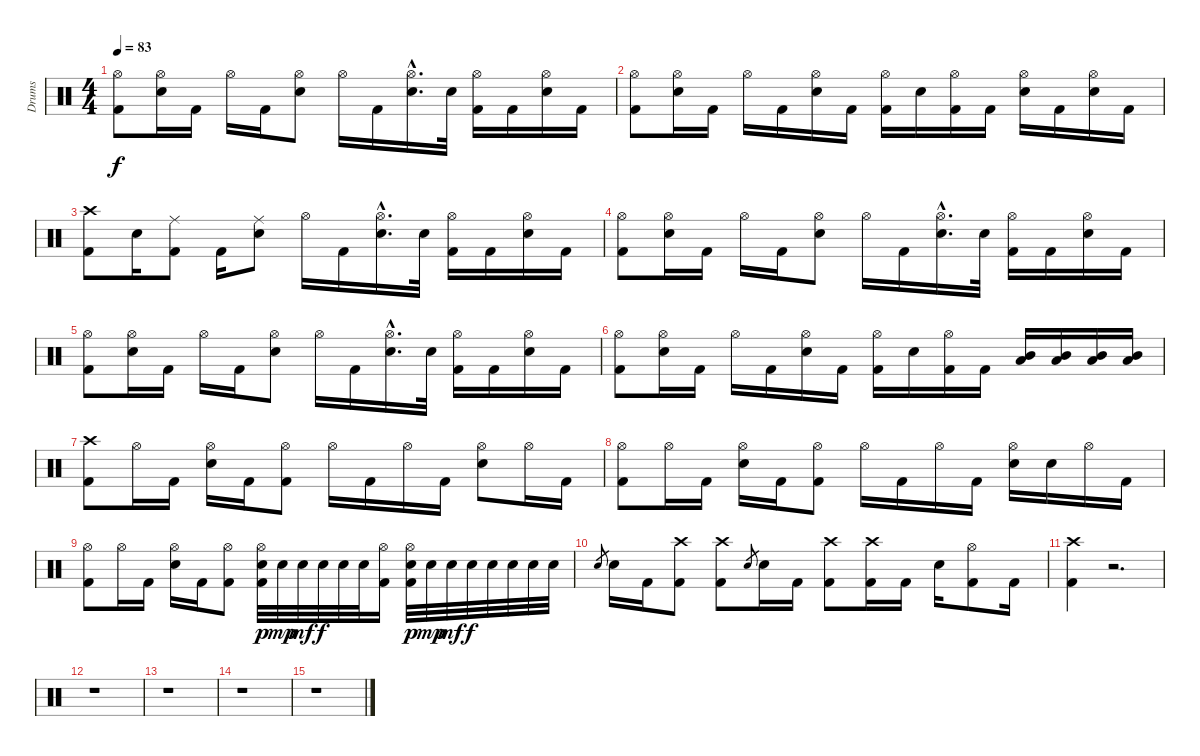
\track ("Drums" "Drums") {instrument percussion}
\staff {score}
\articulation defaults
\ts (4 4)
\tempo 83
\clef neutral
\ks c
("Hi-Hat (open)" "Kick (hit) 2").8{dy f} ("Hi-Hat (open)" "Electric Snare (hit)").16 "Kick (hit) 2".16 "Hi-Hat (open)".16 "Kick (hit) 2".16 ("Hi-Hat (open)" "Electric Snare (hit)").8 "Hi-Hat (open)".16 "Kick (hit) 2".16 ("Hi-Hat (open)"{hac} "Electric Snare (hit)"{hac}).16{d} "Electric Snare (hit)".32 ("Hi-Hat (open)" "Kick (hit) 2").16 "Kick (hit) 2".16 ("Hi-Hat (open)" "Electric Snare (hit)").16 "Kick (hit) 2".16 |
("Hi-Hat (open)" "Kick (hit) 2").8 ("Hi-Hat (open)" "Electric Snare (hit)").16 "Kick (hit) 2".16 "Hi-Hat (open)".16 "Kick (hit) 2".16 ("Hi-Hat (open)" "Electric Snare (hit)").16 "Kick (hit) 2".16 ("Hi-Hat (open)" "Kick (hit) 2").16 "Electric Snare (hit)".16 ("Hi-Hat (open)" "Kick (hit) 2").16 "Kick (hit) 2".16 ("Hi-Hat (open)" "Electric Snare (hit)").16 "Kick (hit) 2".16 ("Hi-Hat (open)" "Electric Snare (hit)").16 "Kick (hit) 2".16 |
("Crash high (hit)" "Kick (hit) 2").8 "Electric Snare (hit)".16 ("Ride (middle)" "Kick (hit) 2").8 "Kick (hit) 2".16 ("Ride (middle)" "Electric Snare (hit)").8 "Hi-Hat (open)".16 "Kick (hit) 2".16 ("Hi-Hat (open)"{hac} "Electric Snare (hit)"{hac}).16{d} "Electric Snare (hit)".32 ("Hi-Hat (open)" "Kick (hit) 2").16 "Kick (hit) 2".16 ("Hi-Hat (open)" "Electric Snare (hit)").16 "Kick (hit) 2".16 |
("Hi-Hat (open)" "Kick (hit) 2").8 ("Hi-Hat (open)" "Electric Snare (hit)").16 "Kick (hit) 2".16 "Hi-Hat (open)".16 "Kick (hit) 2".16 ("Hi-Hat (open)" "Electric Snare (hit)").8 "Hi-Hat (open)".16 "Kick (hit) 2".16 ("Hi-Hat (open)"{hac} "Electric Snare (hit)"{hac}).16{d} "Electric Snare (hit)".32 ("Hi-Hat (open)" "Kick (hit) 2").16 "Kick (hit) 2".16 ("Hi-Hat (open)" "Electric Snare (hit)").16 "Kick (hit) 2".16 |
("Hi-Hat (open)" "Kick (hit) 2").8 ("Hi-Hat (open)" "Electric Snare (hit)").16 "Kick (hit) 2".16 "Hi-Hat (open)".16 "Kick (hit) 2".16 ("Hi-Hat (open)" "Electric Snare (hit)").8 "Hi-Hat (open)".16 "Kick (hit) 2".16 ("Hi-Hat (open)"{hac} "Electric Snare (hit)"{hac}).16{d} "Electric Snare (hit)".32 ("Hi-Hat (open)" "Kick (hit) 2").16 "Kick (hit) 2".16 ("Hi-Hat (open)" "Electric Snare (hit)").16 "Kick (hit) 2".16 |
("Hi-Hat (open)" "Kick (hit) 2").8 ("Hi-Hat (open)" "Electric Snare (hit)").16 "Kick (hit) 2".16 "Hi-Hat (open)".16 "Kick (hit) 2".16 ("Hi-Hat (open)" "Electric Snare (hit)").16 "Kick (hit) 2".16 ("Hi-Hat (open)" "Kick (hit) 2").16 "Electric Snare (hit)".16 ("Hi-Hat (open)" "Kick (hit) 2").16 "Kick (hit) 2".16 ("Mid Tom (hit)" "Low Tom (hit)").16 ("Mid Tom (hit)" "Low Tom (hit)").16 ("Mid Tom (hit)" "Low Tom (hit)").16 ("Mid Tom (hit)" "Low Tom (hit)").16 |
("Crash high (hit)" "Kick (hit) 2").8 "Hi-Hat (open)".16 "Kick (hit) 2".16 ("Hi-Hat (open)" "Electric Snare (hit)").16 "Kick (hit) 2".16 ("Hi-Hat (open)" "Kick (hit) 2").8 "Hi-Hat (open)".16 "Kick (hit) 2".16 "Hi-Hat (open)".16 "Kick (hit) 2".16 ("Hi-Hat (open)" "Electric Snare (hit)").8 "Hi-Hat (open)".16 "Kick (hit) 2".16 |
("Hi-Hat (open)" "Kick (hit) 2").8 "Hi-Hat (open)".16 "Kick (hit) 2".16 ("Hi-Hat (open)" "Electric Snare (hit)").16 "Kick (hit) 2".16 ("Hi-Hat (open)" "Kick (hit) 2").8 "Hi-Hat (open)".16 "Kick (hit) 2".16 "Hi-Hat (open)".16 "Kick (hit) 2".16 ("Hi-Hat (open)" "Electric Snare (hit)").16 "Electric Snare (hit)".16 "Hi-Hat (open)".16 "Kick (hit) 2".16 |
("Hi-Hat (open)" "Kick (hit) 2").8 "Hi-Hat (open)".16 "Kick (hit) 2".16 ("Hi-Hat (open)" "Electric Snare (hit)").16 "Kick (hit) 2".16 ("Hi-Hat (open)" "Kick (hit) 2").8 ("Hi-Hat (open)" "Electric Snare (hit)" "Kick (hit) 2").32{dy p} "Electric Snare (hit)".32{dy mp} "Electric Snare (hit)".32{dy mf} "Electric Snare (hit)".32{dy f} "Electric Snare (hit)".32 "Electric Snare (hit)".32 ("Hi-Hat (open)" "Kick (hit) 2").16 ("Hi-Hat (open)" "Electric Snare (hit)" "Kick (hit) 2").32{dy p} "Electric Snare (hit)".32{dy mp} "Electric Snare (hit)".32{dy mf} "Electric Snare (hit)".32{dy f} "Electric Snare (hit)".32 "Electric Snare (hit)".32 "Electric Snare (hit)".32 "Electric Snare (hit)".32 |
"Electric Snare (hit)".8{gr} "Electric Snare (hit)".16 "Kick (hit) 2".16 ("Crash high (hit)" "Kick (hit) 2").8 ("Crash high (hit)" "Kick (hit) 2").8 "Electric Snare (hit)".8{gr} "Electric Snare (hit)".16 "Kick (hit) 2".16 ("Crash high (hit)" "Kick (hit) 2").8 ("Crash high (hit)" "Kick (hit) 2").16 "Kick (hit) 2".16 "Electric Snare (hit)".16 ("Hi-Hat (open)" "Kick (hit) 2").8 "Kick (hit) 2".16 |
("Crash high (hit)" "Kick (hit) 2").4 r.2{d} |
r.1 |
r.1 |
r.1 |
r.1
